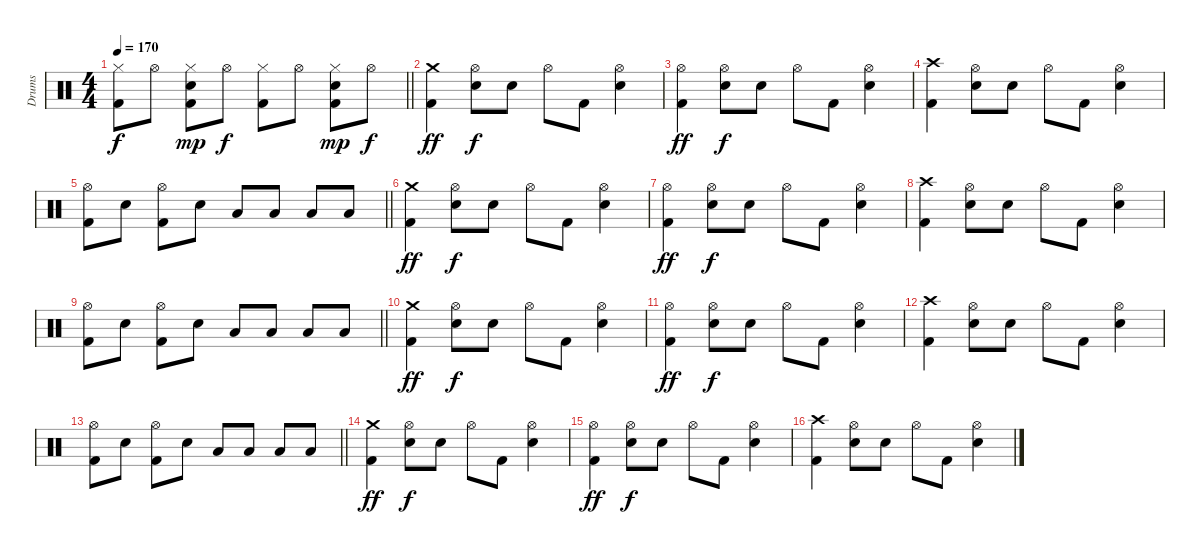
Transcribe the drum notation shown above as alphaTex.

\track ("Drums" "Drums") {instrument percussion}
\staff {score}
\articulation defaults
\ts (4 4)
\tempo 170
\clef neutral
\barLineRight lightlight
\ks c
("Hi-Hat (closed)" "Kick (hit) 2").8{dy f} "Hi-Hat (open)".8 ("Hi-Hat (closed)" "Electric Snare (hit)" "Kick (hit) 2").8{dy mp} "Hi-Hat (open)".8{dy f} ("Hi-Hat (closed)" "Kick (hit) 2").8 "Hi-Hat (open)".8 ("Hi-Hat (closed)" "Electric Snare (hit)" "Kick (hit) 2").8{dy mp} "Hi-Hat (open)".8{dy f} |
("Crash medium (hit)" "Kick (hit) 2").4{dy ff} ("Hi-Hat (open)" "Electric Snare (hit)").8{dy f} "Electric Snare (hit)".8 "Hi-Hat (open)".8 "Kick (hit) 2".8 ("Hi-Hat (open)" "Electric Snare (hit)").4 |
("Hi-Hat (open)" "Kick (hit) 2").4{dy ff} ("Hi-Hat (open)" "Electric Snare (hit)").8{dy f} "Electric Snare (hit)".8 "Hi-Hat (open)".8 "Kick (hit) 2".8 ("Hi-Hat (open)" "Electric Snare (hit)").4 |
("Crash high (hit)" "Kick (hit) 2").4 ("Hi-Hat (open)" "Electric Snare (hit)").8 "Electric Snare (hit)".8 "Hi-Hat (open)".8 "Kick (hit) 2".8 ("Hi-Hat (open)" "Electric Snare (hit)").4 |
\barLineRight lightlight
("Hi-Hat (open)" "Kick (hit) 2").8 "Electric Snare (hit)".8 ("Hi-Hat (open)" "Kick (hit) 2").8 "Electric Snare (hit)".8 "Low Tom (hit)".8 "Low Tom (hit)".8 "Low Floor Tom (hit)".8 "Low Floor Tom (hit)".8 |
("Crash medium (hit)" "Kick (hit) 2").4{dy ff} ("Hi-Hat (open)" "Electric Snare (hit)").8{dy f} "Electric Snare (hit)".8 "Hi-Hat (open)".8 "Kick (hit) 2".8 ("Hi-Hat (open)" "Electric Snare (hit)").4 |
("Hi-Hat (open)" "Kick (hit) 2").4{dy ff} ("Hi-Hat (open)" "Electric Snare (hit)").8{dy f} "Electric Snare (hit)".8 "Hi-Hat (open)".8 "Kick (hit) 2".8 ("Hi-Hat (open)" "Electric Snare (hit)").4 |
("Crash high (hit)" "Kick (hit) 2").4 ("Hi-Hat (open)" "Electric Snare (hit)").8 "Electric Snare (hit)".8 "Hi-Hat (open)".8 "Kick (hit) 2".8 ("Hi-Hat (open)" "Electric Snare (hit)").4 |
\barLineRight lightlight
("Hi-Hat (open)" "Kick (hit) 2").8 "Electric Snare (hit)".8 ("Hi-Hat (open)" "Kick (hit) 2").8 "Electric Snare (hit)".8 "Low Tom (hit)".8 "Low Tom (hit)".8 "Low Floor Tom (hit)".8 "Low Floor Tom (hit)".8 |
("Crash medium (hit)" "Kick (hit) 2").4{dy ff} ("Hi-Hat (open)" "Electric Snare (hit)").8{dy f} "Electric Snare (hit)".8 "Hi-Hat (open)".8 "Kick (hit) 2".8 ("Hi-Hat (open)" "Electric Snare (hit)").4 |
("Hi-Hat (open)" "Kick (hit) 2").4{dy ff} ("Hi-Hat (open)" "Electric Snare (hit)").8{dy f} "Electric Snare (hit)".8 "Hi-Hat (open)".8 "Kick (hit) 2".8 ("Hi-Hat (open)" "Electric Snare (hit)").4 |
("Crash high (hit)" "Kick (hit) 2").4 ("Hi-Hat (open)" "Electric Snare (hit)").8 "Electric Snare (hit)".8 "Hi-Hat (open)".8 "Kick (hit) 2".8 ("Hi-Hat (open)" "Electric Snare (hit)").4 |
\barLineRight lightlight
("Hi-Hat (open)" "Kick (hit) 2").8 "Electric Snare (hit)".8 ("Hi-Hat (open)" "Kick (hit) 2").8 "Electric Snare (hit)".8 "Low Tom (hit)".8 "Low Tom (hit)".8 "Low Floor Tom (hit)".8 "Low Floor Tom (hit)".8 |
("Crash medium (hit)" "Kick (hit) 2").4{dy ff} ("Hi-Hat (open)" "Electric Snare (hit)").8{dy f} "Electric Snare (hit)".8 "Hi-Hat (open)".8 "Kick (hit) 2".8 ("Hi-Hat (open)" "Electric Snare (hit)").4 |
("Hi-Hat (open)" "Kick (hit) 2").4{dy ff} ("Hi-Hat (open)" "Electric Snare (hit)").8{dy f} "Electric Snare (hit)".8 "Hi-Hat (open)".8 "Kick (hit) 2".8 ("Hi-Hat (open)" "Electric Snare (hit)").4 |
("Crash high (hit)" "Kick (hit) 2").4 ("Hi-Hat (open)" "Electric Snare (hit)").8 "Electric Snare (hit)".8 "Hi-Hat (open)".8 "Kick (hit) 2".8 ("Hi-Hat (open)" "Electric Snare (hit)").4
